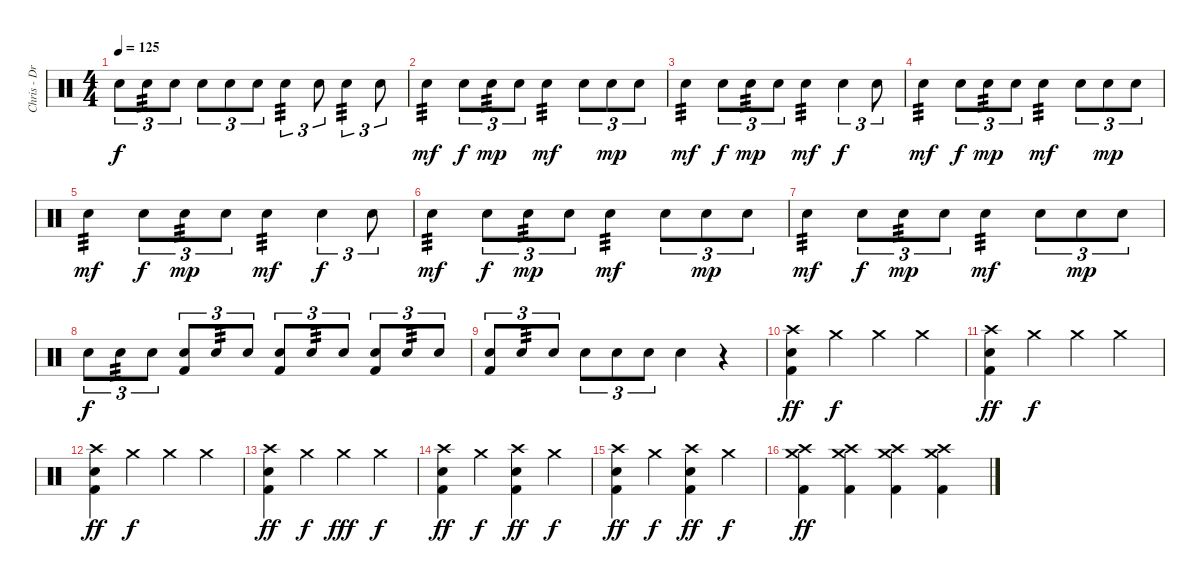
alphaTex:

\track ("Chris - Drums" "Chris - Dr") {instrument percussion}
\staff {score}
\articulation defaults
\ts (4 4)
\tempo 125
\clef neutral
\ks c "Electric Snare (hit)".8{tu (3 2) dy f} "Electric Snare (hit)".8{tu (3 2) tp 3} "Electric Snare (hit)".8{tu (3 2)} "Electric Snare (hit)".8{tu (3 2)} "Electric Snare (hit)".8{tu (3 2)} "Electric Snare (hit)".8{tu (3 2)} "Electric Snare (hit)".4{tu (3 2) tp 3} "Electric Snare (hit)".8{tu (3 2)} "Electric Snare (hit)".4{tu (3 2) tp 3} "Electric Snare (hit)".8{tu (3 2)}
|
"Electric Snare (hit)".4{tp 3 dy mf} "Electric Snare (hit)".8{tu (3 2) dy f} "Electric Snare (hit)".8{tu (3 2) tp 3 dy mp} "Electric Snare (hit)".8{tu (3 2)} "Electric Snare (hit)".4{tp 3 dy mf} "Electric Snare (hit)".8{tu (3 2)} "Electric Snare (hit)".8{tu (3 2) dy mp} "Electric Snare (hit)".8{tu (3 2)} |
"Electric Snare (hit)".4{tp 3 dy mf} "Electric Snare (hit)".8{tu (3 2) dy f} "Electric Snare (hit)".8{tu (3 2) tp 3 dy mp} "Electric Snare (hit)".8{tu (3 2)} "Electric Snare (hit)".4{tp 3 dy mf} "Electric Snare (hit)".4{tu (3 2) dy f} "Electric Snare (hit)".8{tu (3 2)} |
"Electric Snare (hit)".4{tp 3 dy mf} "Electric Snare (hit)".8{tu (3 2) dy f} "Electric Snare (hit)".8{tu (3 2) tp 3 dy mp} "Electric Snare (hit)".8{tu (3 2)} "Electric Snare (hit)".4{tp 3 dy mf} "Electric Snare (hit)".8{tu (3 2)} "Electric Snare (hit)".8{tu (3 2) dy mp} "Electric Snare (hit)".8{tu (3 2)} |
"Electric Snare (hit)".4{tp 3 dy mf} "Electric Snare (hit)".8{tu (3 2) dy f} "Electric Snare (hit)".8{tu (3 2) tp 3 dy mp} "Electric Snare (hit)".8{tu (3 2)} "Electric Snare (hit)".4{tp 3 dy mf} "Electric Snare (hit)".4{tu (3 2) dy f} "Electric Snare (hit)".8{tu (3 2)} |
"Electric Snare (hit)".4{tp 3 dy mf} "Electric Snare (hit)".8{tu (3 2) dy f} "Electric Snare (hit)".8{tu (3 2) tp 3 dy mp} "Electric Snare (hit)".8{tu (3 2)} "Electric Snare (hit)".4{tp 3 dy mf} "Electric Snare (hit)".8{tu (3 2)} "Electric Snare (hit)".8{tu (3 2) dy mp} "Electric Snare (hit)".8{tu (3 2)} |
"Electric Snare (hit)".4{tp 3 dy mf} "Electric Snare (hit)".8{tu (3 2) dy f} "Electric Snare (hit)".8{tu (3 2) tp 3 dy mp} "Electric Snare (hit)".8{tu (3 2)} "Electric Snare (hit)".4{tp 3 dy mf} "Electric Snare (hit)".8{tu (3 2)} "Electric Snare (hit)".8{tu (3 2) dy mp} "Electric Snare (hit)".8{tu (3 2)} |
"Electric Snare (hit)".8{tu (3 2) dy f} "Electric Snare (hit)".8{tu (3 2) tp 3} "Electric Snare (hit)".8{tu (3 2)} ("Electric Snare (hit)" "Kick (hit) 2").8{tu (3 2)} "Electric Snare (hit)".8{tu (3 2) tp 3} "Electric Snare (hit)".8{tu (3 2)} ("Electric Snare (hit)" "Kick (hit) 2").8{tu (3 2)} "Electric Snare (hit)".8{tu (3 2) tp 3} "Electric Snare (hit)".8{tu (3 2)} ("Electric Snare (hit)" "Kick (hit) 2").8{tu (3 2)} "Electric Snare (hit)".8{tu (3 2) tp 3} "Electric Snare (hit)".8{tu (3 2)} |
("Electric Snare (hit)" "Kick (hit) 2").8{tu (3 2)} "Electric Snare (hit)".8{tu (3 2) tp 3} "Electric Snare (hit)".8{tu (3 2)} "Electric Snare (hit)".8{tu (3 2)} "Electric Snare (hit)".8{tu (3 2)} "Electric Snare (hit)".8{tu (3 2)} "Electric Snare (hit)".4 r.4 |
("Crash high (hit)" "Electric Snare (hit)" "Kick (hit) 2").4{dy ff} "Crash medium (hit)".4{dy f} "Crash medium (hit)".4 "Crash medium (hit)".4 |
("Crash high (hit)" "Electric Snare (hit)" "Kick (hit) 2").4{dy ff} "Crash medium (hit)".4{dy f} "Crash medium (hit)".4 "Crash medium (hit)".4 |
("Crash high (hit)" "Electric Snare (hit)" "Kick (hit) 2").4{dy ff} "Crash medium (hit)".4{dy f} "Crash medium (hit)".4 "Crash medium (hit)".4 |
("Crash high (hit)" "Electric Snare (hit)" "Kick (hit) 2").4{dy ff} "Crash medium (hit)".4{dy f} "Crash medium (hit)".4{dy fff} "Crash medium (hit)".4{dy f} |
("Crash high (hit)" "Electric Snare (hit)" "Kick (hit) 2").4{dy ff} "Crash medium (hit)".4{dy f} ("Crash high (hit)" "Electric Snare (hit)" "Kick (hit) 2").4{dy ff} "Crash medium (hit)".4{dy f} |
("Crash high (hit)" "Electric Snare (hit)" "Kick (hit) 2").4{dy ff} "Crash medium (hit)".4{dy f} ("Crash high (hit)" "Electric Snare (hit)" "Kick (hit) 2").4{dy ff} "Crash medium (hit)".4{dy f} |
("Crash medium (hit)" "Crash high (hit)" "Kick (hit) 2").4{dy ff} ("Crash medium (hit)" "Crash high (hit)" "Kick (hit) 2").4 ("Crash medium (hit)" "Crash high (hit)" "Kick (hit) 2").4 ("Crash medium (hit)" "Crash high (hit)" "Kick (hit) 2").4
